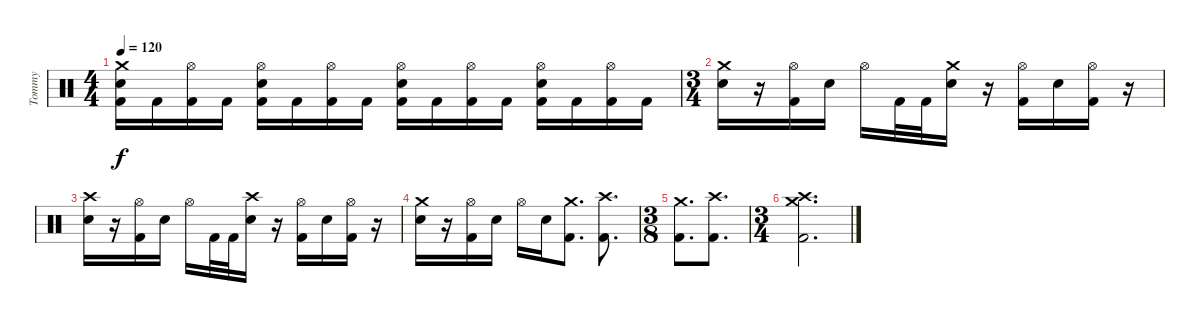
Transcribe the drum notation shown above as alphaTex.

\track ("Tommy" "Tommy") {instrument percussion}
\staff {score}
\articulation defaults
\ts (4 4)
\tempo 120
\clef neutral
\ks c
("Crash medium (hit)" "Electric Snare (hit)" "Kick (hit) 2").16{dy f} "Kick (hit) 2".16 ("Hi-Hat (open)" "Kick (hit) 2").16 "Kick (hit) 2".16 ("Hi-Hat (open)" "Electric Snare (hit)" "Kick (hit) 2").16 "Kick (hit) 2".16 ("Hi-Hat (open)" "Kick (hit) 2").16 "Kick (hit) 2".16 ("Hi-Hat (open)" "Electric Snare (hit)" "Kick (hit) 2").16 "Kick (hit) 2".16 ("Hi-Hat (open)" "Kick (hit) 2").16 "Kick (hit) 2".16 ("Hi-Hat (open)" "Electric Snare (hit)" "Kick (hit) 2").16 "Kick (hit) 2".16 ("Hi-Hat (open)" "Kick (hit) 2").16 "Kick (hit) 2".16 |
\ts (3 4)
("Crash medium (hit)" "Electric Snare (hit)").16 r.16 ("Hi-Hat (open)" "Kick (hit) 2").16 "Electric Snare (hit)".16 "Hi-Hat (open)".16 "Kick (hit) 2".32 "Kick (hit) 2".32 ("Crash medium (hit)" "Electric Snare (hit)").16 r.16 ("Hi-Hat (open)" "Kick (hit) 2").16 "Electric Snare (hit)".16 ("Hi-Hat (open)" "Kick (hit) 2").16 r.16 |
("Crash high (hit)" "Electric Snare (hit)").16 r.16 ("Hi-Hat (open)" "Kick (hit) 2").16 "Electric Snare (hit)".16 "Hi-Hat (open)".16 "Kick (hit) 2".32 "Kick (hit) 2".32 ("Crash high (hit)" "Electric Snare (hit)").16 r.16 ("Hi-Hat (open)" "Kick (hit) 2").16 "Electric Snare (hit)".16 ("Hi-Hat (open)" "Kick (hit) 2").16 r.16 |
("Crash medium (hit)" "Electric Snare (hit)").16 r.16 ("Hi-Hat (open)" "Kick (hit) 2").16 "Electric Snare (hit)".16 "Hi-Hat (open)".16 "Electric Snare (hit)".16 ("Crash medium (hit)" "Kick (hit) 2").8{d} ("Crash high (hit)" "Kick (hit) 2").8{d} |
\ts (3 8)
("Crash medium (hit)" "Kick (hit) 2").8{d} ("Crash high (hit)" "Kick (hit) 2").8{d} |
\ts (3 4)
("Crash high (hit)" "Crash medium (hit)" "Kick (hit) 2").2{d}
